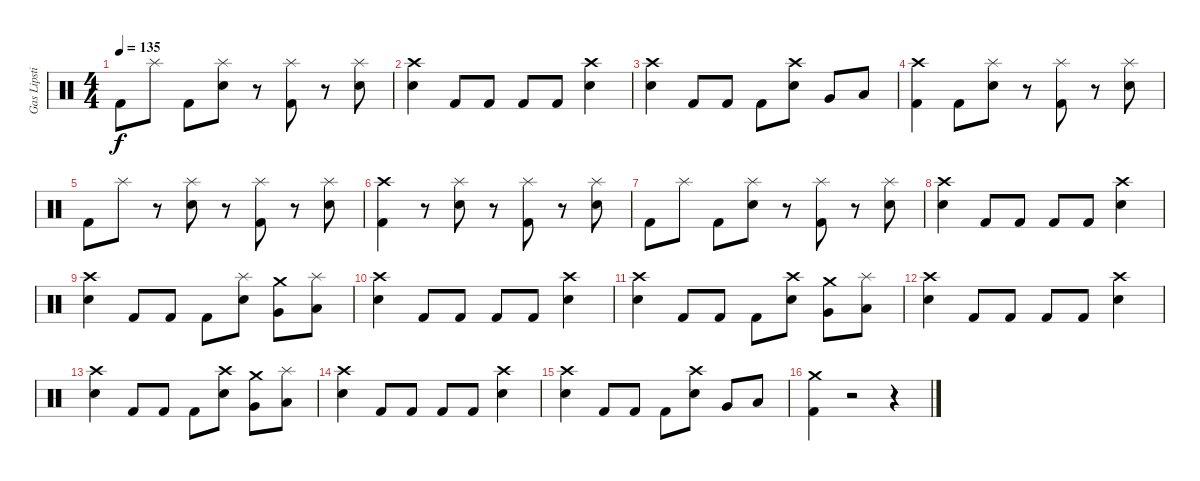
\track ("Gas Lipstick" "Gas Lipsti") {instrument percussion}
\staff {score}
\articulation defaults
\ts (4 4)
\tempo 135
\clef neutral
\ks c "Kick (hit) 2".8{dy f} "Splash (hit)".8 "Kick (hit) 2".8
("Splash (hit)" "Electric Snare (hit)").8 r.8 ("Splash (hit)" "Kick (hit) 2").8 r.8 ("Splash (hit)" "Electric Snare (hit)").8 |
("Crash high (hit)" "Electric Snare (hit)").4 "Kick (hit) 2".8 "Kick (hit) 2".8 "Kick (hit) 2".8 "Kick (hit) 2".8 ("Crash high (hit)" "Electric Snare (hit)").4 |
("Crash high (hit)" "Electric Snare (hit)").4 "Kick (hit) 2".8 "Kick (hit) 2".8 "Kick (hit) 2".8 ("Crash high (hit)" "Electric Snare (hit)").8 "Very Low Tom (hit)".8 "Low Floor Tom (hit)".8 |
("Crash high (hit)" "Kick (hit) 2").4 "Kick (hit) 2".8 ("Splash (hit)" "Electric Snare (hit)").8 r.8 ("Splash (hit)" "Kick (hit) 2").8 r.8 ("Splash (hit)" "Electric Snare (hit)").8 |
"Kick (hit) 2".8 "Splash (hit)".8 r.8 ("Splash (hit)" "Electric Snare (hit)").8 r.8 ("Splash (hit)" "Kick (hit) 2").8 r.8 ("Splash (hit)" "Electric Snare (hit)").8 |
("Crash high (hit)" "Kick (hit) 2").4 r.8 ("Splash (hit)" "Electric Snare (hit)").8 r.8 ("Splash (hit)" "Kick (hit) 2").8 r.8 ("Splash (hit)" "Electric Snare (hit)").8 |
"Kick (hit) 2".8 "Splash (hit)".8 "Kick (hit) 2".8 ("Splash (hit)" "Electric Snare (hit)").8 r.8 ("Splash (hit)" "Kick (hit) 2").8 r.8 ("Splash (hit)" "Electric Snare (hit)").8 |
("Crash high (hit)" "Electric Snare (hit)").4 "Kick (hit) 2".8 "Kick (hit) 2".8 "Kick (hit) 2".8 "Kick (hit) 2".8 ("Crash high (hit)" "Electric Snare (hit)").4 |
("Crash high (hit)" "Electric Snare (hit)").4 "Kick (hit) 2".8 "Kick (hit) 2".8 "Kick (hit) 2".8 ("Splash (hit)" "Electric Snare (hit)").8 ("Crash medium (hit)" "Very Low Tom (hit)").8 ("Splash (hit)" "Low Floor Tom (hit)").8 |
("Crash high (hit)" "Electric Snare (hit)").4 "Kick (hit) 2".8 "Kick (hit) 2".8 "Kick (hit) 2".8 "Kick (hit) 2".8 ("Crash high (hit)" "Electric Snare (hit)").4 |
("Crash high (hit)" "Electric Snare (hit)").4 "Kick (hit) 2".8 "Kick (hit) 2".8 "Kick (hit) 2".8 ("Crash high (hit)" "Electric Snare (hit)").8 ("Very Low Tom (hit)" "Crash medium (hit)").8 ("Low Floor Tom (hit)" "Splash (hit)").8 |
("Crash high (hit)" "Electric Snare (hit)").4 "Kick (hit) 2".8 "Kick (hit) 2".8 "Kick (hit) 2".8 "Kick (hit) 2".8 ("Crash high (hit)" "Electric Snare (hit)").4 |
("Crash high (hit)" "Electric Snare (hit)").4 "Kick (hit) 2".8 "Kick (hit) 2".8 "Kick (hit) 2".8 ("Crash high (hit)" "Electric Snare (hit)").8 ("Crash medium (hit)" "Very Low Tom (hit)").8 ("Splash (hit)" "Low Floor Tom (hit)").8 |
("Crash high (hit)" "Electric Snare (hit)").4 "Kick (hit) 2".8 "Kick (hit) 2".8 "Kick (hit) 2".8 "Kick (hit) 2".8 ("Crash high (hit)" "Electric Snare (hit)").4 |
("Crash high (hit)" "Electric Snare (hit)").4 "Kick (hit) 2".8 "Kick (hit) 2".8 "Kick (hit) 2".8 ("Crash high (hit)" "Electric Snare (hit)").8 "Very Low Tom (hit)".8 "Low Floor Tom (hit)".8 |
("Crash medium (hit)" "Kick (hit) 2").4 r.2 r.4
